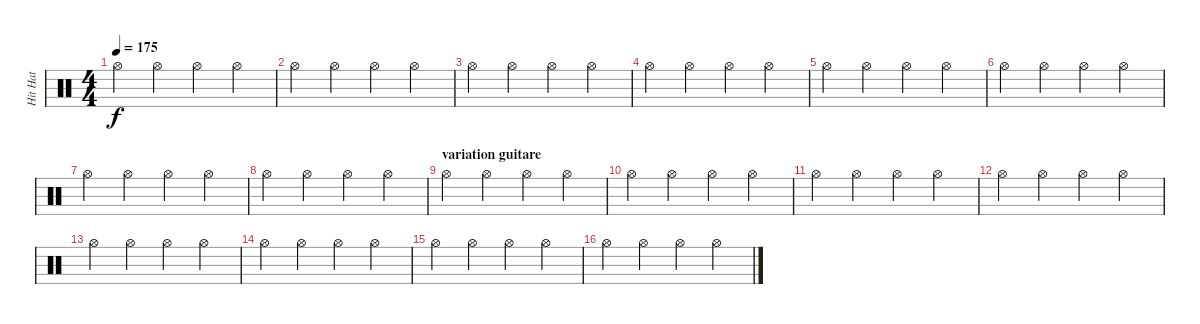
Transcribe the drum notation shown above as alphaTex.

\track ("Hit Hat" "Hit Hat") {instrument percussion}
\staff {score}
\articulation defaults
\ts (4 4)
\tempo 175
\clef neutral
\ks c "Hi-Hat (open)".4{dy f} "Hi-Hat (open)".4 "Hi-Hat (open)".4 "Hi-Hat (open)".4
|
"Hi-Hat (open)".4 "Hi-Hat (open)".4 "Hi-Hat (open)".4 "Hi-Hat (open)".4 |
"Hi-Hat (open)".4 "Hi-Hat (open)".4 "Hi-Hat (open)".4 "Hi-Hat (open)".4 |
"Hi-Hat (open)".4 "Hi-Hat (open)".4 "Hi-Hat (open)".4 "Hi-Hat (open)".4 |
"Hi-Hat (open)".4 "Hi-Hat (open)".4 "Hi-Hat (open)".4 "Hi-Hat (open)".4 |
"Hi-Hat (open)".4 "Hi-Hat (open)".4 "Hi-Hat (open)".4 "Hi-Hat (open)".4 |
"Hi-Hat (open)".4 "Hi-Hat (open)".4 "Hi-Hat (open)".4 "Hi-Hat (open)".4 |
"Hi-Hat (open)".4 "Hi-Hat (open)".4 "Hi-Hat (open)".4 "Hi-Hat (open)".4 |
\section ("" "variation guitare")
"Hi-Hat (open)".4 "Hi-Hat (open)".4 "Hi-Hat (open)".4 "Hi-Hat (open)".4 |
"Hi-Hat (open)".4 "Hi-Hat (open)".4 "Hi-Hat (open)".4 "Hi-Hat (open)".4 |
"Hi-Hat (open)".4 "Hi-Hat (open)".4 "Hi-Hat (open)".4 "Hi-Hat (open)".4 |
"Hi-Hat (open)".4 "Hi-Hat (open)".4 "Hi-Hat (open)".4 "Hi-Hat (open)".4 |
"Hi-Hat (open)".4 "Hi-Hat (open)".4 "Hi-Hat (open)".4 "Hi-Hat (open)".4 |
"Hi-Hat (open)".4 "Hi-Hat (open)".4 "Hi-Hat (open)".4 "Hi-Hat (open)".4 |
"Hi-Hat (open)".4 "Hi-Hat (open)".4 "Hi-Hat (open)".4 "Hi-Hat (open)".4 |
"Hi-Hat (open)".4 "Hi-Hat (open)".4 "Hi-Hat (open)".4 "Hi-Hat (open)".4
